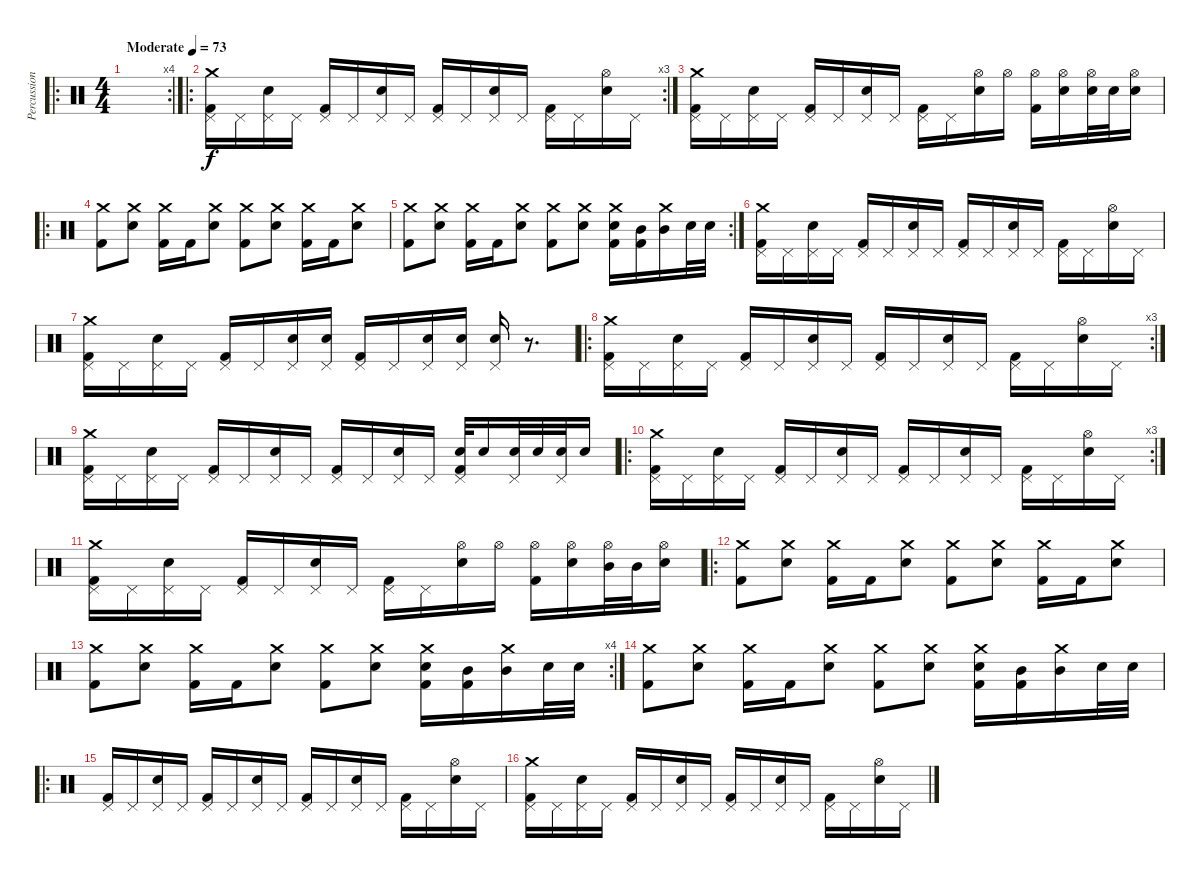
\track ("Percussion" "Percussion") {instrument percussion}
\staff {score}
\articulation defaults
\ro
\rc 4
\ts (4 4)
\tempo (73 "Moderate")
\clef neutral
\ks c
|
\ro
\rc 3
("Crash medium (hit)" "Pedal Hi-Hat (hit)" "Kick (hit) 2").16 "Pedal Hi-Hat (hit)".16 ("Pedal Hi-Hat (hit)" "Snare (hit) 2").16 "Pedal Hi-Hat (hit)".16 ("Pedal Hi-Hat (hit)" "Kick (hit) 2").16 "Pedal Hi-Hat (hit)".16 ("Pedal Hi-Hat (hit)" "Snare (hit) 2").16 "Pedal Hi-Hat (hit)".16 ("Pedal Hi-Hat (hit)" "Kick (hit) 2").16 "Pedal Hi-Hat (hit)".16 ("Pedal Hi-Hat (hit)" "Snare (hit) 2").16 "Pedal Hi-Hat (hit)".16 ("Pedal Hi-Hat (hit)" "Kick (hit) 2").16 "Pedal Hi-Hat (hit)".16 ("Hi-Hat (open)" "Snare (hit) 2").16 "Pedal Hi-Hat (hit)".16 |
("Crash medium (hit)" "Pedal Hi-Hat (hit)" "Kick (hit) 2").16 "Pedal Hi-Hat (hit)".16 ("Pedal Hi-Hat (hit)" "Snare (hit) 2").16 "Pedal Hi-Hat (hit)".16 ("Pedal Hi-Hat (hit)" "Kick (hit) 2").16 "Pedal Hi-Hat (hit)".16 ("Pedal Hi-Hat (hit)" "Snare (hit) 2").16 "Pedal Hi-Hat (hit)".16 ("Pedal Hi-Hat (hit)" "Kick (hit) 2").16 "Pedal Hi-Hat (hit)".16 ("Hi-Hat (open)" "Snare (hit) 2").16 "Hi-Hat (open)".16 ("Hi-Hat (open)" "Kick (hit) 2").16 ("Hi-Hat (open)" "Snare (hit) 2").16 ("Hi-Hat (open)" "Snare (hit) 2").32 "Snare (hit) 2".32 ("Hi-Hat (open)" "Snare (hit) 2").16 |
\ro
("Crash medium (hit)" "Kick (hit) 2").8 ("Crash medium (hit)" "Snare (hit) 2").8 ("Crash medium (hit)" "Kick (hit) 2").16 "Kick (hit) 2".16 ("Crash medium (hit)" "Snare (hit) 2").8 ("Crash medium (hit)" "Kick (hit) 2").8 ("Crash medium (hit)" "Snare (hit) 2").8 ("Crash medium (hit)" "Kick (hit) 2").16 "Kick (hit) 2".16 ("Crash medium (hit)" "Snare (hit) 2").8 |
\rc 2
("Crash medium (hit)" "Kick (hit) 2").8 ("Crash medium (hit)" "Snare (hit) 2").8 ("Crash medium (hit)" "Kick (hit) 2").16 "Kick (hit) 2".16 ("Crash medium (hit)" "Snare (hit) 2").8 ("Crash medium (hit)" "Kick (hit) 2").8 ("Crash medium (hit)" "Snare (hit) 2").8 ("Crash medium (hit)" "Snare (hit) 2" "Kick (hit) 2").16 ("Mid Tom (hit)" "Kick (hit) 2").16 ("Crash medium (hit)" "Mid Tom (hit)").16 "Snare (hit) 2".32 "Snare (hit) 2".32 |
("Crash medium (hit)" "Pedal Hi-Hat (hit)" "Kick (hit) 2").16 "Pedal Hi-Hat (hit)".16 ("Pedal Hi-Hat (hit)" "Snare (hit) 2").16 "Pedal Hi-Hat (hit)".16 ("Pedal Hi-Hat (hit)" "Kick (hit) 2").16 "Pedal Hi-Hat (hit)".16 ("Pedal Hi-Hat (hit)" "Snare (hit) 2").16 "Pedal Hi-Hat (hit)".16 ("Pedal Hi-Hat (hit)" "Kick (hit) 2").16 "Pedal Hi-Hat (hit)".16 ("Pedal Hi-Hat (hit)" "Snare (hit) 2").16 "Pedal Hi-Hat (hit)".16 ("Pedal Hi-Hat (hit)" "Kick (hit) 2").16 "Pedal Hi-Hat (hit)".16 ("Hi-Hat (open)" "Snare (hit) 2").16 "Pedal Hi-Hat (hit)".16 |
("Crash medium (hit)" "Pedal Hi-Hat (hit)" "Kick (hit) 2").16 "Pedal Hi-Hat (hit)".16 ("Pedal Hi-Hat (hit)" "Snare (hit) 2").16 "Pedal Hi-Hat (hit)".16 ("Pedal Hi-Hat (hit)" "Kick (hit) 2").16 "Pedal Hi-Hat (hit)".16 ("Pedal Hi-Hat (hit)" "Snare (hit) 2").16 ("Pedal Hi-Hat (hit)" "Snare (hit) 2").16 ("Pedal Hi-Hat (hit)" "Kick (hit) 2").16 "Pedal Hi-Hat (hit)".16 ("Pedal Hi-Hat (hit)" "Snare (hit) 2").16 ("Pedal Hi-Hat (hit)" "Snare (hit) 2").16 ("Pedal Hi-Hat (hit)" "Snare (hit) 2").16 r.8{d} |
\ro
\rc 3
("Crash medium (hit)" "Pedal Hi-Hat (hit)" "Kick (hit) 2").16 "Pedal Hi-Hat (hit)".16 ("Pedal Hi-Hat (hit)" "Snare (hit) 2").16 "Pedal Hi-Hat (hit)".16 ("Pedal Hi-Hat (hit)" "Kick (hit) 2").16 "Pedal Hi-Hat (hit)".16 ("Pedal Hi-Hat (hit)" "Snare (hit) 2").16 "Pedal Hi-Hat (hit)".16 ("Pedal Hi-Hat (hit)" "Kick (hit) 2").16 "Pedal Hi-Hat (hit)".16 ("Pedal Hi-Hat (hit)" "Snare (hit) 2").16 "Pedal Hi-Hat (hit)".16 ("Pedal Hi-Hat (hit)" "Kick (hit) 2").16 "Pedal Hi-Hat (hit)".16 ("Hi-Hat (open)" "Snare (hit) 2").16 "Pedal Hi-Hat (hit)".16 |
("Crash medium (hit)" "Pedal Hi-Hat (hit)" "Kick (hit) 2").16 "Pedal Hi-Hat (hit)".16 ("Pedal Hi-Hat (hit)" "Snare (hit) 2").16 "Pedal Hi-Hat (hit)".16 ("Pedal Hi-Hat (hit)" "Kick (hit) 2").16 "Pedal Hi-Hat (hit)".16 ("Pedal Hi-Hat (hit)" "Snare (hit) 2").16 "Pedal Hi-Hat (hit)".16 ("Pedal Hi-Hat (hit)" "Kick (hit) 2").16 "Pedal Hi-Hat (hit)".16 ("Pedal Hi-Hat (hit)" "Snare (hit) 2").16 "Pedal Hi-Hat (hit)".16 ("Pedal Hi-Hat (hit)" "Snare (hit) 2" "Kick (hit) 2").32 "Snare (hit) 2".16 ("Pedal Hi-Hat (hit)" "Snare (hit) 2").32 "Snare (hit) 2".32 ("Pedal Hi-Hat (hit)" "Snare (hit) 2").32 "Snare (hit) 2".16 |
\ro
\rc 3
("Crash medium (hit)" "Pedal Hi-Hat (hit)" "Kick (hit) 2").16 "Pedal Hi-Hat (hit)".16 ("Pedal Hi-Hat (hit)" "Snare (hit) 2").16 "Pedal Hi-Hat (hit)".16 ("Pedal Hi-Hat (hit)" "Kick (hit) 2").16 "Pedal Hi-Hat (hit)".16 ("Pedal Hi-Hat (hit)" "Snare (hit) 2").16 "Pedal Hi-Hat (hit)".16 ("Pedal Hi-Hat (hit)" "Kick (hit) 2").16 "Pedal Hi-Hat (hit)".16 ("Pedal Hi-Hat (hit)" "Snare (hit) 2").16 "Pedal Hi-Hat (hit)".16 ("Pedal Hi-Hat (hit)" "Kick (hit) 2").16 "Pedal Hi-Hat (hit)".16 ("Hi-Hat (open)" "Snare (hit) 2").16 "Pedal Hi-Hat (hit)".16 |
("Crash medium (hit)" "Pedal Hi-Hat (hit)" "Kick (hit) 2").16 "Pedal Hi-Hat (hit)".16 ("Pedal Hi-Hat (hit)" "Snare (hit) 2").16 "Pedal Hi-Hat (hit)".16 ("Pedal Hi-Hat (hit)" "Kick (hit) 2").16 "Pedal Hi-Hat (hit)".16 ("Pedal Hi-Hat (hit)" "Snare (hit) 2").16 "Pedal Hi-Hat (hit)".16 ("Pedal Hi-Hat (hit)" "Kick (hit) 2").16 "Pedal Hi-Hat (hit)".16 ("Hi-Hat (open)" "Snare (hit) 2").16 "Hi-Hat (open)".16 ("Hi-Hat (open)" "Kick (hit) 2").16 ("Hi-Hat (open)" "Snare (hit) 2").16 ("Hi-Hat (open)" "Mid Tom (hit)").32 "Mid Tom (hit)".32 ("Hi-Hat (open)" "Snare (hit) 2").16 |
\ro
("Crash medium (hit)" "Kick (hit) 2").8 ("Crash medium (hit)" "Snare (hit) 2").8 ("Crash medium (hit)" "Kick (hit) 2").16 "Kick (hit) 2".16 ("Crash medium (hit)" "Snare (hit) 2").8 ("Crash medium (hit)" "Kick (hit) 2").8 ("Crash medium (hit)" "Snare (hit) 2").8 ("Crash medium (hit)" "Kick (hit) 2").16 "Kick (hit) 2".16 ("Crash medium (hit)" "Snare (hit) 2").8 |
\rc 4
("Crash medium (hit)" "Kick (hit) 2").8 ("Crash medium (hit)" "Snare (hit) 2").8 ("Crash medium (hit)" "Kick (hit) 2").16 "Kick (hit) 2".16 ("Crash medium (hit)" "Snare (hit) 2").8 ("Crash medium (hit)" "Kick (hit) 2").8 ("Crash medium (hit)" "Snare (hit) 2").8 ("Crash medium (hit)" "Snare (hit) 2" "Kick (hit) 2").16 ("Mid Tom (hit)" "Kick (hit) 2").16 ("Crash medium (hit)" "Mid Tom (hit)").16 "Snare (hit) 2".32 "Snare (hit) 2".32 |
("Crash medium (hit)" "Kick (hit) 2").8 ("Crash medium (hit)" "Snare (hit) 2").8 ("Crash medium (hit)" "Kick (hit) 2").16 "Kick (hit) 2".16 ("Crash medium (hit)" "Snare (hit) 2").8 ("Crash medium (hit)" "Kick (hit) 2").8 ("Crash medium (hit)" "Snare (hit) 2").8 ("Crash medium (hit)" "Snare (hit) 2" "Kick (hit) 2").16 ("Mid Tom (hit)" "Kick (hit) 2").16 ("Crash medium (hit)" "Mid Tom (hit)").16 "Snare (hit) 2".32 "Snare (hit) 2".32 |
\ro
("Pedal Hi-Hat (hit)" "Kick (hit) 2").16 "Pedal Hi-Hat (hit)".16 ("Pedal Hi-Hat (hit)" "Snare (hit) 2").16 "Pedal Hi-Hat (hit)".16 ("Pedal Hi-Hat (hit)" "Kick (hit) 2").16 "Pedal Hi-Hat (hit)".16 ("Pedal Hi-Hat (hit)" "Snare (hit) 2").16 "Pedal Hi-Hat (hit)".16 ("Pedal Hi-Hat (hit)" "Kick (hit) 2").16 "Pedal Hi-Hat (hit)".16 ("Pedal Hi-Hat (hit)" "Snare (hit) 2").16 "Pedal Hi-Hat (hit)".16 ("Pedal Hi-Hat (hit)" "Kick (hit) 2").16 "Pedal Hi-Hat (hit)".16 ("Hi-Hat (open)" "Snare (hit) 2").16 "Pedal Hi-Hat (hit)".16 |
("Crash medium (hit)" "Pedal Hi-Hat (hit)" "Kick (hit) 2").16 "Pedal Hi-Hat (hit)".16 ("Pedal Hi-Hat (hit)" "Snare (hit) 2").16 "Pedal Hi-Hat (hit)".16 ("Pedal Hi-Hat (hit)" "Kick (hit) 2").16 "Pedal Hi-Hat (hit)".16 ("Pedal Hi-Hat (hit)" "Snare (hit) 2").16 "Pedal Hi-Hat (hit)".16 ("Pedal Hi-Hat (hit)" "Kick (hit) 2").16 "Pedal Hi-Hat (hit)".16 ("Pedal Hi-Hat (hit)" "Snare (hit) 2").16 "Pedal Hi-Hat (hit)".16 ("Pedal Hi-Hat (hit)" "Kick (hit) 2").16 "Pedal Hi-Hat (hit)".16 ("Hi-Hat (open)" "Snare (hit) 2").16 "Pedal Hi-Hat (hit)".16
